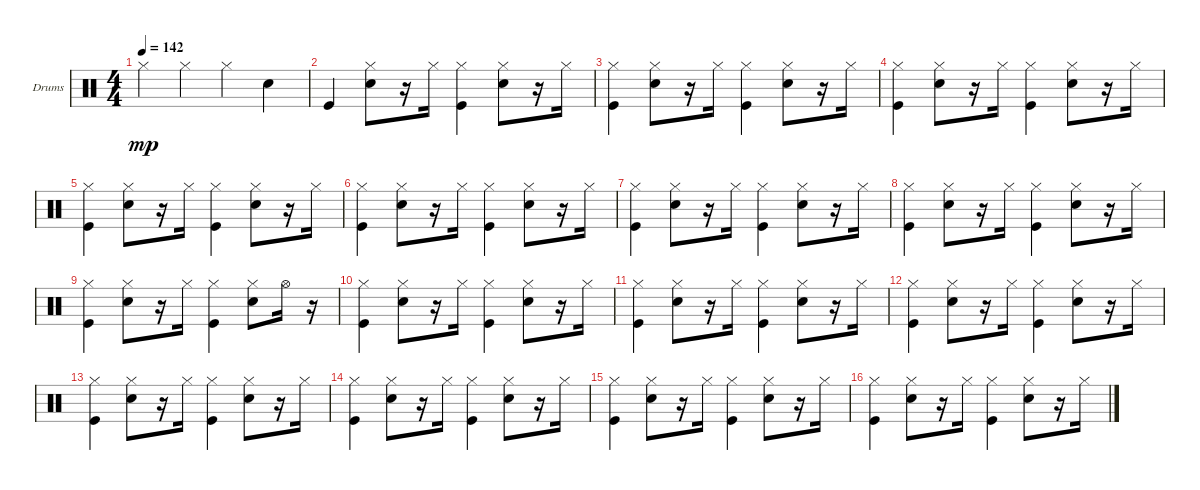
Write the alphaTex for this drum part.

\defaultSystemsLayout 4
\bracketExtendMode groupsimilarinstruments
\firstSystemTrackNameOrientation horizontal
\otherSystemsTrackNameOrientation horizontal
\track ("Drumkit" "Drums") {instrument percussion}
\staff {score}
\articulation defaults
\ts (4 4)
\tempo 142
\clef neutral
\ks c "Hi-Hat (closed)".4{dy mp} "Hi-Hat (closed)".4 "Hi-Hat (closed)".4 "Snare (hit) 2".4
|
"Kick (hit)".4 ("Snare (hit) 2" "Hi-Hat (closed)").8 r.16 "Hi-Hat (closed)".16 ("Kick (hit)" "Hi-Hat (closed)").4 ("Snare (hit) 2" "Hi-Hat (closed)").8 r.16 "Hi-Hat (closed)".16 |
("Kick (hit)" "Hi-Hat (closed)").4 ("Snare (hit) 2" "Hi-Hat (closed)").8 r.16 "Hi-Hat (closed)".16 ("Kick (hit)" "Hi-Hat (closed)").4 ("Snare (hit) 2" "Hi-Hat (closed)").8 r.16 "Hi-Hat (closed)".16 |
("Kick (hit)" "Hi-Hat (closed)").4 ("Snare (hit) 2" "Hi-Hat (closed)").8 r.16 "Hi-Hat (closed)".16 ("Kick (hit)" "Hi-Hat (closed)").4 ("Snare (hit) 2" "Hi-Hat (closed)").8 r.16 "Hi-Hat (closed)".16 |
("Kick (hit)" "Hi-Hat (closed)").4 ("Snare (hit) 2" "Hi-Hat (closed)").8 r.16 "Hi-Hat (closed)".16 ("Kick (hit)" "Hi-Hat (closed)").4 ("Snare (hit) 2" "Hi-Hat (closed)").8 r.16 "Hi-Hat (closed)".16 |
("Kick (hit)" "Hi-Hat (closed)").4 ("Snare (hit) 2" "Hi-Hat (closed)").8 r.16 "Hi-Hat (closed)".16 ("Kick (hit)" "Hi-Hat (closed)").4 ("Snare (hit) 2" "Hi-Hat (closed)").8 r.16 "Hi-Hat (closed)".16 |
("Kick (hit)" "Hi-Hat (closed)").4 ("Snare (hit) 2" "Hi-Hat (closed)").8 r.16 "Hi-Hat (closed)".16 ("Kick (hit)" "Hi-Hat (closed)").4 ("Snare (hit) 2" "Hi-Hat (closed)").8 r.16 "Hi-Hat (closed)".16 |
("Kick (hit)" "Hi-Hat (closed)").4 ("Snare (hit) 2" "Hi-Hat (closed)").8 r.16 "Hi-Hat (closed)".16 ("Kick (hit)" "Hi-Hat (closed)").4 ("Snare (hit) 2" "Hi-Hat (closed)").8 r.16 "Hi-Hat (closed)".16 |
("Kick (hit)" "Hi-Hat (closed)").4 ("Snare (hit) 2" "Hi-Hat (closed)").8 r.16 "Hi-Hat (closed)".16 ("Kick (hit)" "Hi-Hat (closed)").4 ("Snare (hit) 2" "Hi-Hat (closed)").8 "Hi-Hat (open)".16 r.16 |
("Kick (hit)" "Hi-Hat (closed)").4 ("Snare (hit) 2" "Hi-Hat (closed)").8 r.16 "Hi-Hat (closed)".16 ("Kick (hit)" "Hi-Hat (closed)").4 ("Snare (hit) 2" "Hi-Hat (closed)").8 r.16 "Hi-Hat (closed)".16 |
("Kick (hit)" "Hi-Hat (closed)").4 ("Snare (hit) 2" "Hi-Hat (closed)").8 r.16 "Hi-Hat (closed)".16 ("Kick (hit)" "Hi-Hat (closed)").4 ("Snare (hit) 2" "Hi-Hat (closed)").8 r.16 "Hi-Hat (closed)".16 |
("Kick (hit)" "Hi-Hat (closed)").4 ("Snare (hit) 2" "Hi-Hat (closed)").8 r.16 "Hi-Hat (closed)".16 ("Kick (hit)" "Hi-Hat (closed)").4 ("Snare (hit) 2" "Hi-Hat (closed)").8 r.16 "Hi-Hat (closed)".16 |
("Kick (hit)" "Hi-Hat (closed)").4 ("Snare (hit) 2" "Hi-Hat (closed)").8 r.16 "Hi-Hat (closed)".16 ("Kick (hit)" "Hi-Hat (closed)").4 ("Snare (hit) 2" "Hi-Hat (closed)").8 r.16 "Hi-Hat (closed)".16 |
("Kick (hit)" "Hi-Hat (closed)").4 ("Snare (hit) 2" "Hi-Hat (closed)").8 r.16 "Hi-Hat (closed)".16 ("Kick (hit)" "Hi-Hat (closed)").4 ("Snare (hit) 2" "Hi-Hat (closed)").8 r.16 "Hi-Hat (closed)".16 |
("Kick (hit)" "Hi-Hat (closed)").4 ("Snare (hit) 2" "Hi-Hat (closed)").8 r.16 "Hi-Hat (closed)".16 ("Kick (hit)" "Hi-Hat (closed)").4 ("Snare (hit) 2" "Hi-Hat (closed)").8 r.16 "Hi-Hat (closed)".16 |
("Kick (hit)" "Hi-Hat (closed)").4 ("Snare (hit) 2" "Hi-Hat (closed)").8 r.16 "Hi-Hat (closed)".16 ("Kick (hit)" "Hi-Hat (closed)").4 ("Snare (hit) 2" "Hi-Hat (closed)").8 r.16 "Hi-Hat (closed)".16
